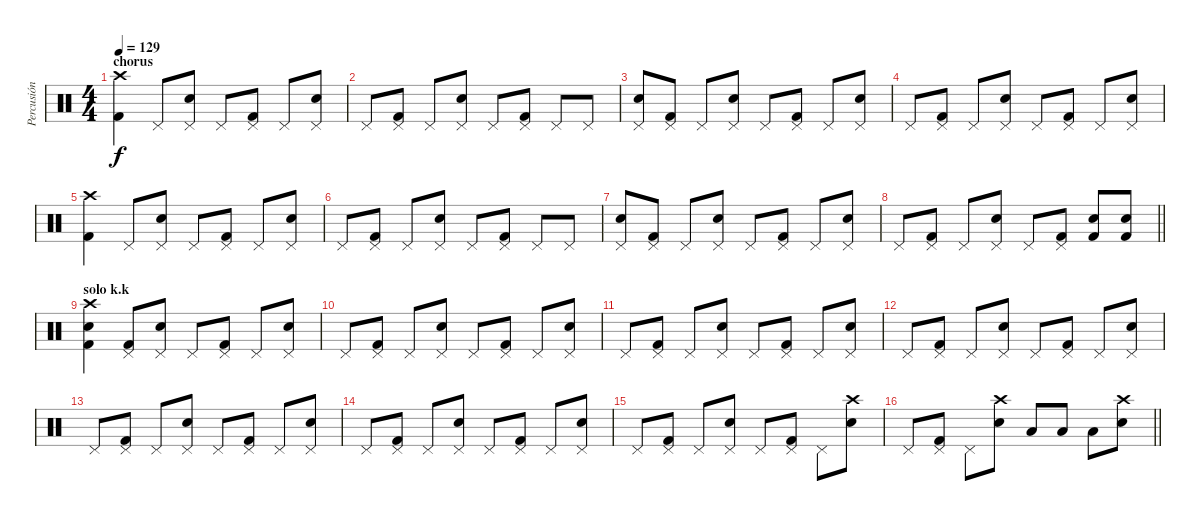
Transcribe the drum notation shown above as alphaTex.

\track ("Percusión" "Percusión") {instrument percussion}
\staff {score}
\articulation defaults
\ts (4 4)
\section ("" "chorus")
\tempo 129
\clef neutral
\ks c
("Crash high (hit)" "Kick (hit) 2").4{dy f} "Pedal Hi-Hat (hit)".8 ("Electric Snare (hit)" "Pedal Hi-Hat (hit)").8 "Pedal Hi-Hat (hit)".8 ("Pedal Hi-Hat (hit)" "Kick (hit) 2").8 "Pedal Hi-Hat (hit)".8 ("Electric Snare (hit)" "Pedal Hi-Hat (hit)").8 |
"Pedal Hi-Hat (hit)".8 ("Pedal Hi-Hat (hit)" "Kick (hit) 2").8 "Pedal Hi-Hat (hit)".8 ("Electric Snare (hit)" "Pedal Hi-Hat (hit)").8 "Pedal Hi-Hat (hit)".8 ("Pedal Hi-Hat (hit)" "Kick (hit) 2").8 "Pedal Hi-Hat (hit)".8 "Pedal Hi-Hat (hit)".8 |
("Electric Snare (hit)" "Pedal Hi-Hat (hit)").8 ("Pedal Hi-Hat (hit)" "Kick (hit) 2").8 "Pedal Hi-Hat (hit)".8 ("Electric Snare (hit)" "Pedal Hi-Hat (hit)").8 "Pedal Hi-Hat (hit)".8 ("Pedal Hi-Hat (hit)" "Kick (hit) 2").8 "Pedal Hi-Hat (hit)".8 ("Electric Snare (hit)" "Pedal Hi-Hat (hit)").8 |
"Pedal Hi-Hat (hit)".8 ("Pedal Hi-Hat (hit)" "Kick (hit) 2").8 "Pedal Hi-Hat (hit)".8 ("Electric Snare (hit)" "Pedal Hi-Hat (hit)").8 "Pedal Hi-Hat (hit)".8 ("Pedal Hi-Hat (hit)" "Kick (hit) 2").8 "Pedal Hi-Hat (hit)".8 ("Electric Snare (hit)" "Pedal Hi-Hat (hit)").8 |
("Crash high (hit)" "Kick (hit) 2").4 "Pedal Hi-Hat (hit)".8 ("Electric Snare (hit)" "Pedal Hi-Hat (hit)").8 "Pedal Hi-Hat (hit)".8 ("Pedal Hi-Hat (hit)" "Kick (hit) 2").8 "Pedal Hi-Hat (hit)".8 ("Electric Snare (hit)" "Pedal Hi-Hat (hit)").8 |
"Pedal Hi-Hat (hit)".8 ("Pedal Hi-Hat (hit)" "Kick (hit) 2").8 "Pedal Hi-Hat (hit)".8 ("Electric Snare (hit)" "Pedal Hi-Hat (hit)").8 "Pedal Hi-Hat (hit)".8 ("Pedal Hi-Hat (hit)" "Kick (hit) 2").8 "Pedal Hi-Hat (hit)".8 "Pedal Hi-Hat (hit)".8 |
("Electric Snare (hit)" "Pedal Hi-Hat (hit)").8 ("Pedal Hi-Hat (hit)" "Kick (hit) 2").8 "Pedal Hi-Hat (hit)".8 ("Electric Snare (hit)" "Pedal Hi-Hat (hit)").8 "Pedal Hi-Hat (hit)".8 ("Pedal Hi-Hat (hit)" "Kick (hit) 2").8 "Pedal Hi-Hat (hit)".8 ("Electric Snare (hit)" "Pedal Hi-Hat (hit)").8 |
\barLineRight lightlight "Pedal Hi-Hat (hit)".8
("Pedal Hi-Hat (hit)" "Kick (hit) 2").8 "Pedal Hi-Hat (hit)".8 ("Electric Snare (hit)" "Pedal Hi-Hat (hit)").8 "Pedal Hi-Hat (hit)".8 ("Pedal Hi-Hat (hit)" "Kick (hit) 2").8 ("Electric Snare (hit)" "Kick (hit) 2").8 ("Electric Snare (hit)" "Kick (hit) 2").8 |
\section ("" "solo k.k")
("Crash high (hit)" "Electric Snare (hit)" "Kick (hit) 2").4 ("Pedal Hi-Hat (hit)" "Kick (hit) 2").8 ("Electric Snare (hit)" "Pedal Hi-Hat (hit)").8 "Pedal Hi-Hat (hit)".8 ("Pedal Hi-Hat (hit)" "Kick (hit) 2").8 "Pedal Hi-Hat (hit)".8 ("Electric Snare (hit)" "Pedal Hi-Hat (hit)").8 |
"Pedal Hi-Hat (hit)".8 ("Pedal Hi-Hat (hit)" "Kick (hit) 2").8 "Pedal Hi-Hat (hit)".8 ("Electric Snare (hit)" "Pedal Hi-Hat (hit)").8 "Pedal Hi-Hat (hit)".8 ("Pedal Hi-Hat (hit)" "Kick (hit) 2").8 "Pedal Hi-Hat (hit)".8 ("Electric Snare (hit)" "Pedal Hi-Hat (hit)").8 |
"Pedal Hi-Hat (hit)".8 ("Pedal Hi-Hat (hit)" "Kick (hit) 2").8 "Pedal Hi-Hat (hit)".8 ("Electric Snare (hit)" "Pedal Hi-Hat (hit)").8 "Pedal Hi-Hat (hit)".8 ("Pedal Hi-Hat (hit)" "Kick (hit) 2").8 "Pedal Hi-Hat (hit)".8 ("Electric Snare (hit)" "Pedal Hi-Hat (hit)").8 |
"Pedal Hi-Hat (hit)".8 ("Pedal Hi-Hat (hit)" "Kick (hit) 2").8 "Pedal Hi-Hat (hit)".8 ("Electric Snare (hit)" "Pedal Hi-Hat (hit)").8 "Pedal Hi-Hat (hit)".8 ("Pedal Hi-Hat (hit)" "Kick (hit) 2").8 "Pedal Hi-Hat (hit)".8 ("Electric Snare (hit)" "Pedal Hi-Hat (hit)").8 |
"Pedal Hi-Hat (hit)".8 ("Pedal Hi-Hat (hit)" "Kick (hit) 2").8 "Pedal Hi-Hat (hit)".8 ("Electric Snare (hit)" "Pedal Hi-Hat (hit)").8 "Pedal Hi-Hat (hit)".8 ("Pedal Hi-Hat (hit)" "Kick (hit) 2").8 "Pedal Hi-Hat (hit)".8 ("Electric Snare (hit)" "Pedal Hi-Hat (hit)").8 |
"Pedal Hi-Hat (hit)".8 ("Pedal Hi-Hat (hit)" "Kick (hit) 2").8 "Pedal Hi-Hat (hit)".8 ("Electric Snare (hit)" "Pedal Hi-Hat (hit)").8 "Pedal Hi-Hat (hit)".8 ("Pedal Hi-Hat (hit)" "Kick (hit) 2").8 "Pedal Hi-Hat (hit)".8 ("Electric Snare (hit)" "Pedal Hi-Hat (hit)").8 |
"Pedal Hi-Hat (hit)".8 ("Pedal Hi-Hat (hit)" "Kick (hit) 2").8 "Pedal Hi-Hat (hit)".8 ("Electric Snare (hit)" "Pedal Hi-Hat (hit)").8 "Pedal Hi-Hat (hit)".8 ("Pedal Hi-Hat (hit)" "Kick (hit) 2").8 "Pedal Hi-Hat (hit)".8 ("Crash high (hit)" "Electric Snare (hit)").8 |
\barLineRight lightlight "Pedal Hi-Hat (hit)".8
("Pedal Hi-Hat (hit)" "Kick (hit) 2").8 "Pedal Hi-Hat (hit)".8 ("Crash high (hit)" "Electric Snare (hit)").8 "Low Floor Tom (hit)".8 "Low Floor Tom (hit)".8 "Low Floor Tom (hit)".8 ("Crash high (hit)" "Electric Snare (hit)").8
